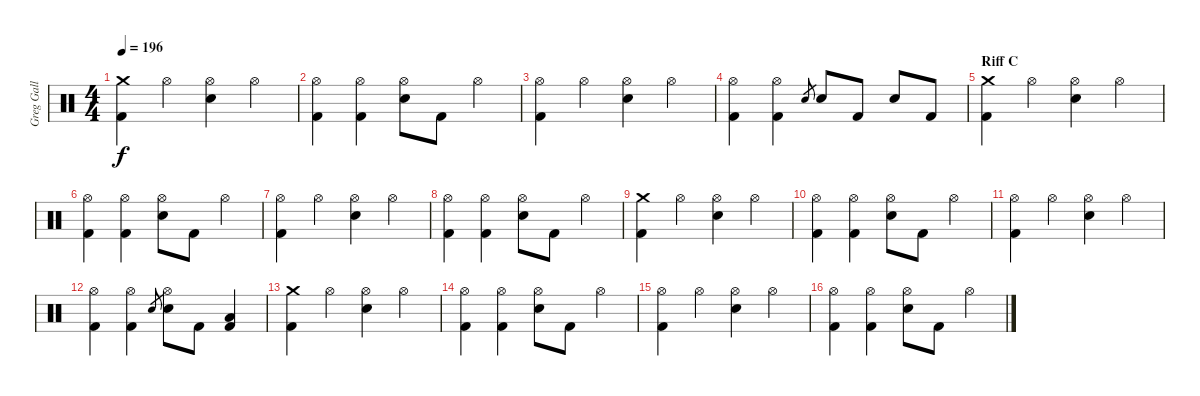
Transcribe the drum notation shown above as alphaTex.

\track ("Greg Gall" "Greg Gall") {instrument percussion}
\staff {score}
\articulation defaults
\ts (4 4)
\tempo 196
\clef neutral
\ks c
("Crash medium (hit)" "Kick (hit) 2").4{dy f} "Hi-Hat (open)".4 ("Hi-Hat (open)" "Electric Snare (hit)").4 "Hi-Hat (open)".4 |
("Hi-Hat (open)" "Kick (hit) 2").4 ("Hi-Hat (open)" "Kick (hit) 2").4 ("Hi-Hat (open)" "Electric Snare (hit)").8 "Kick (hit) 2".8 "Hi-Hat (open)".4 |
("Hi-Hat (open)" "Kick (hit) 2").4 "Hi-Hat (open)".4 ("Hi-Hat (open)" "Electric Snare (hit)").4 "Hi-Hat (open)".4 |
("Hi-Hat (open)" "Kick (hit) 2").4 ("Hi-Hat (open)" "Kick (hit) 2").4 "Electric Snare (hit)".8{gr} "Electric Snare (hit)".8 "Kick (hit) 2".8 "Electric Snare (hit)".8 "Kick (hit) 2".8 |
\section ("" "Riff C")
("Crash medium (hit)" "Kick (hit) 2").4 "Hi-Hat (open)".4 ("Hi-Hat (open)" "Electric Snare (hit)").4 "Hi-Hat (open)".4 |
("Hi-Hat (open)" "Kick (hit) 2").4 ("Hi-Hat (open)" "Kick (hit) 2").4 ("Hi-Hat (open)" "Electric Snare (hit)").8 "Kick (hit) 2".8 "Hi-Hat (open)".4 |
("Hi-Hat (open)" "Kick (hit) 2").4 "Hi-Hat (open)".4 ("Hi-Hat (open)" "Electric Snare (hit)").4 "Hi-Hat (open)".4 |
("Hi-Hat (open)" "Kick (hit) 2").4 ("Hi-Hat (open)" "Kick (hit) 2").4 ("Hi-Hat (open)" "Electric Snare (hit)").8 "Kick (hit) 2".8 "Hi-Hat (open)".4 |
("Crash medium (hit)" "Kick (hit) 2").4 "Hi-Hat (open)".4 ("Hi-Hat (open)" "Electric Snare (hit)").4 "Hi-Hat (open)".4 |
("Hi-Hat (open)" "Kick (hit) 2").4 ("Hi-Hat (open)" "Kick (hit) 2").4 ("Hi-Hat (open)" "Electric Snare (hit)").8 "Kick (hit) 2".8 "Hi-Hat (open)".4 |
("Hi-Hat (open)" "Kick (hit) 2").4 "Hi-Hat (open)".4 ("Hi-Hat (open)" "Electric Snare (hit)").4 "Hi-Hat (open)".4 |
("Hi-Hat (open)" "Kick (hit) 2").4 ("Hi-Hat (open)" "Kick (hit) 2").4 "Electric Snare (hit)".8{gr} ("Hi-Hat (open)" "Electric Snare (hit)").8 "Kick (hit) 2".8 ("Low Floor Tom (hit)" "Kick (hit) 2").4 |
("Crash medium (hit)" "Kick (hit) 2").4 "Hi-Hat (open)".4 ("Hi-Hat (open)" "Electric Snare (hit)").4 "Hi-Hat (open)".4 |
("Hi-Hat (open)" "Kick (hit) 2").4 ("Hi-Hat (open)" "Kick (hit) 2").4 ("Hi-Hat (open)" "Electric Snare (hit)").8 "Kick (hit) 2".8 "Hi-Hat (open)".4 |
("Hi-Hat (open)" "Kick (hit) 2").4 "Hi-Hat (open)".4 ("Hi-Hat (open)" "Electric Snare (hit)").4 "Hi-Hat (open)".4 |
("Hi-Hat (open)" "Kick (hit) 2").4 ("Hi-Hat (open)" "Kick (hit) 2").4 ("Hi-Hat (open)" "Electric Snare (hit)").8 "Kick (hit) 2".8 "Hi-Hat (open)".4
